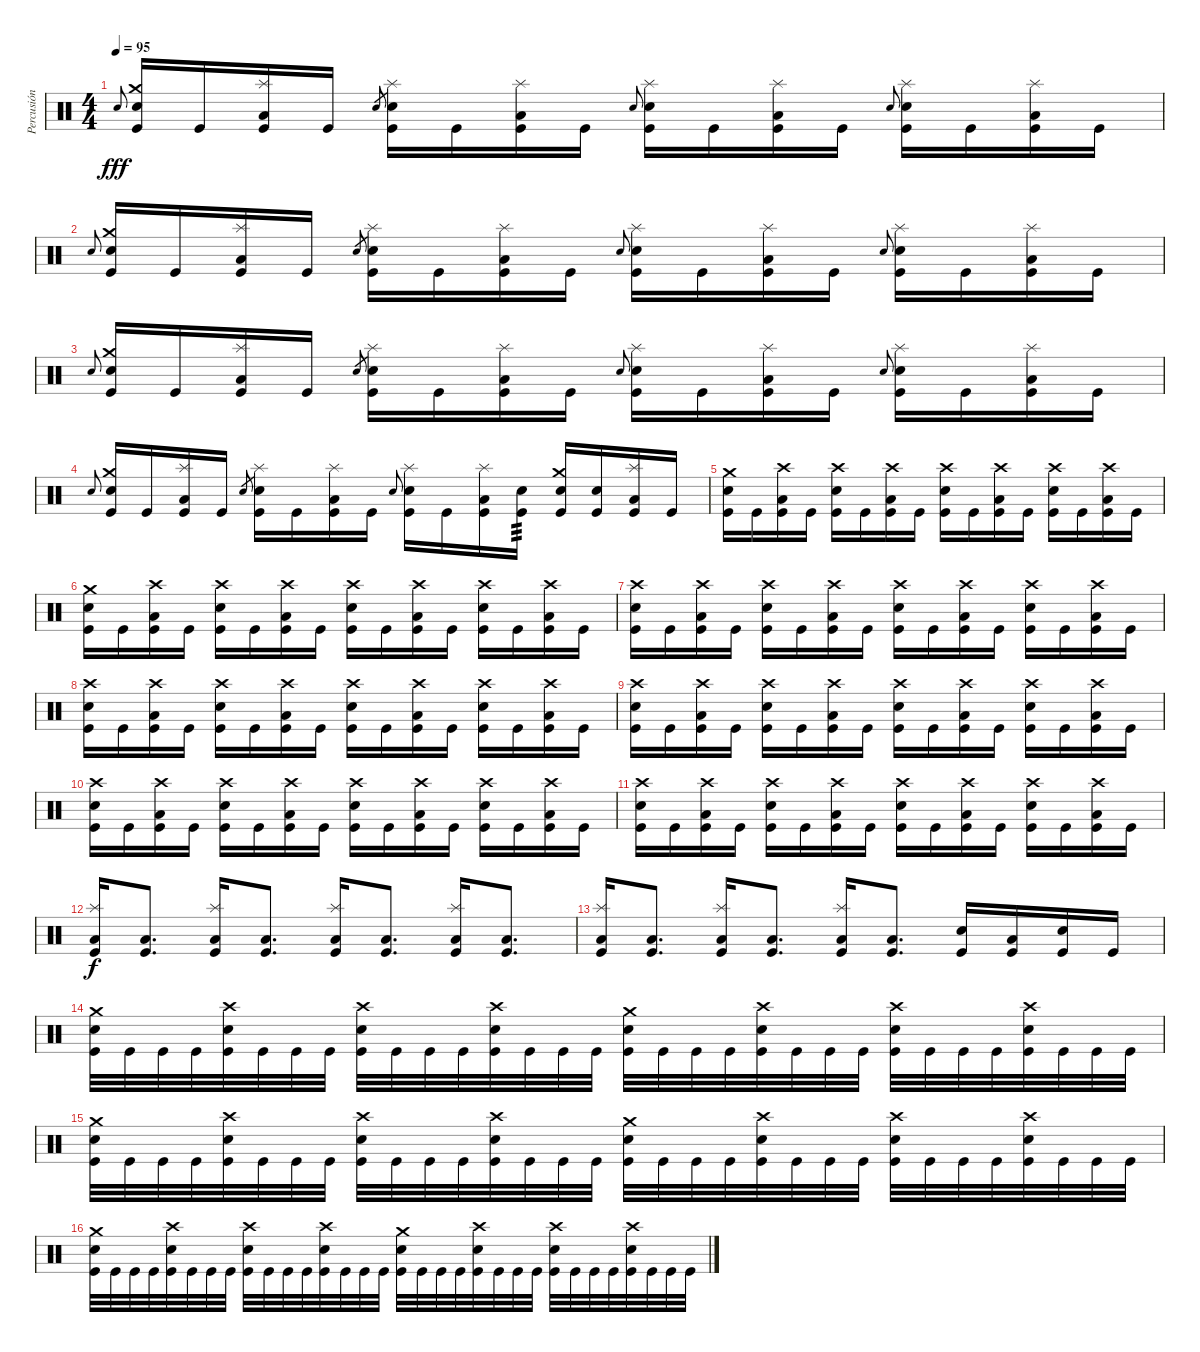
\track ("Percusión" "Percusión") {instrument percussion}
\staff {score}
\articulation defaults
\ts (4 4)
\tempo 95
\clef neutral
\ks c "Snare (hit) 2".8{gr onbeat dy fff}
("Crash medium (hit)" "Snare (hit) 2" "Kick (hit)").16 "Kick (hit)".16 ("Splash (hit)" "Low Floor Tom (hit)" "Kick (hit)").16 "Kick (hit)".16 "Snare (hit) 2".8{gr} ("Splash (hit)" "Snare (hit) 2" "Kick (hit)").16 "Kick (hit)".16 ("Splash (hit)" "Low Floor Tom (hit)" "Kick (hit)").16 "Kick (hit)".16 "Snare (hit) 2".8{gr onbeat} ("Splash (hit)" "Snare (hit) 2" "Kick (hit)").16 "Kick (hit)".16 ("Splash (hit)" "Low Floor Tom (hit)" "Kick (hit)").16 "Kick (hit)".16 "Snare (hit) 2".8{gr onbeat} ("Splash (hit)" "Snare (hit) 2" "Kick (hit)").16 "Kick (hit)".16 ("Splash (hit)" "Low Floor Tom (hit)" "Kick (hit)").16 "Kick (hit)".16 |
"Snare (hit) 2".8{gr onbeat} ("Crash medium (hit)" "Snare (hit) 2" "Kick (hit)").16 "Kick (hit)".16 ("Splash (hit)" "Low Floor Tom (hit)" "Kick (hit)").16 "Kick (hit)".16 "Snare (hit) 2".8{gr} ("Splash (hit)" "Snare (hit) 2" "Kick (hit)").16 "Kick (hit)".16 ("Splash (hit)" "Low Floor Tom (hit)" "Kick (hit)").16 "Kick (hit)".16 "Snare (hit) 2".8{gr onbeat} ("Splash (hit)" "Snare (hit) 2" "Kick (hit)").16 "Kick (hit)".16 ("Splash (hit)" "Low Floor Tom (hit)" "Kick (hit)").16 "Kick (hit)".16 "Snare (hit) 2".8{gr onbeat} ("Splash (hit)" "Snare (hit) 2" "Kick (hit)").16 "Kick (hit)".16 ("Splash (hit)" "Low Floor Tom (hit)" "Kick (hit)").16 "Kick (hit)".16 |
"Snare (hit) 2".8{gr onbeat} ("Crash medium (hit)" "Snare (hit) 2" "Kick (hit)").16 "Kick (hit)".16 ("Splash (hit)" "Low Floor Tom (hit)" "Kick (hit)").16 "Kick (hit)".16 "Snare (hit) 2".8{gr} ("Splash (hit)" "Snare (hit) 2" "Kick (hit)").16 "Kick (hit)".16 ("Splash (hit)" "Low Floor Tom (hit)" "Kick (hit)").16 "Kick (hit)".16 "Snare (hit) 2".8{gr onbeat} ("Splash (hit)" "Snare (hit) 2" "Kick (hit)").16 "Kick (hit)".16 ("Splash (hit)" "Low Floor Tom (hit)" "Kick (hit)").16 "Kick (hit)".16 "Snare (hit) 2".8{gr onbeat} ("Splash (hit)" "Snare (hit) 2" "Kick (hit)").16 "Kick (hit)".16 ("Splash (hit)" "Low Floor Tom (hit)" "Kick (hit)").16 "Kick (hit)".16 |
"Snare (hit) 2".8{gr onbeat} ("Crash medium (hit)" "Snare (hit) 2" "Kick (hit)").16 "Kick (hit)".16 ("Splash (hit)" "Low Floor Tom (hit)" "Kick (hit)").16 "Kick (hit)".16 "Snare (hit) 2".8{gr} ("Splash (hit)" "Snare (hit) 2" "Kick (hit)").16 "Kick (hit)".16 ("Splash (hit)" "Low Floor Tom (hit)" "Kick (hit)").16 "Kick (hit)".16 "Snare (hit) 2".8{gr onbeat} ("Splash (hit)" "Snare (hit) 2" "Kick (hit)").16 "Kick (hit)".16 ("Splash (hit)" "Low Floor Tom (hit)" "Kick (hit)").16 ("Snare (hit) 2" "Kick (hit)").16{tp 3} ("Crash medium (hit)" "Snare (hit) 2" "Kick (hit)").16 ("Snare (hit) 2" "Kick (hit)").16 ("Splash (hit)" "Low Floor Tom (hit)" "Kick (hit)").16 "Kick (hit)".16 |
("Crash medium (hit)" "Snare (hit) 2" "Kick (hit)").16 "Kick (hit)".16 ("Crash high (hit)" "Low Floor Tom (hit)" "Kick (hit)").16 "Kick (hit)".16 ("Crash high (hit)" "Snare (hit) 2" "Kick (hit)").16 "Kick (hit)".16 ("Crash high (hit)" "Low Floor Tom (hit)" "Kick (hit)").16 "Kick (hit)".16 ("Crash high (hit)" "Snare (hit) 2" "Kick (hit)").16 "Kick (hit)".16 ("Crash high (hit)" "Low Floor Tom (hit)" "Kick (hit)").16 "Kick (hit)".16 ("Crash high (hit)" "Snare (hit) 2" "Kick (hit)").16 "Kick (hit)".16 ("Crash high (hit)" "Low Floor Tom (hit)" "Kick (hit)").16 "Kick (hit)".16 |
("Crash medium (hit)" "Snare (hit) 2" "Kick (hit)").16 "Kick (hit)".16 ("Crash high (hit)" "Low Floor Tom (hit)" "Kick (hit)").16 "Kick (hit)".16 ("Crash high (hit)" "Snare (hit) 2" "Kick (hit)").16 "Kick (hit)".16 ("Crash high (hit)" "Low Floor Tom (hit)" "Kick (hit)").16 "Kick (hit)".16 ("Crash high (hit)" "Snare (hit) 2" "Kick (hit)").16 "Kick (hit)".16 ("Crash high (hit)" "Low Floor Tom (hit)" "Kick (hit)").16 "Kick (hit)".16 ("Crash high (hit)" "Snare (hit) 2" "Kick (hit)").16 "Kick (hit)".16 ("Crash high (hit)" "Low Floor Tom (hit)" "Kick (hit)").16 "Kick (hit)".16 |
("Crash high (hit)" "Snare (hit) 2" "Kick (hit)").16 "Kick (hit)".16 ("Crash high (hit)" "Low Floor Tom (hit)" "Kick (hit)").16 "Kick (hit)".16 ("Crash high (hit)" "Snare (hit) 2" "Kick (hit)").16 "Kick (hit)".16 ("Crash high (hit)" "Low Floor Tom (hit)" "Kick (hit)").16 "Kick (hit)".16 ("Crash high (hit)" "Snare (hit) 2" "Kick (hit)").16 "Kick (hit)".16 ("Crash high (hit)" "Low Floor Tom (hit)" "Kick (hit)").16 "Kick (hit)".16 ("Crash high (hit)" "Snare (hit) 2" "Kick (hit)").16 "Kick (hit)".16 ("Crash high (hit)" "Low Floor Tom (hit)" "Kick (hit)").16 "Kick (hit)".16 |
("Crash high (hit)" "Snare (hit) 2" "Kick (hit)").16 "Kick (hit)".16 ("Crash high (hit)" "Low Floor Tom (hit)" "Kick (hit)").16 "Kick (hit)".16 ("Crash high (hit)" "Snare (hit) 2" "Kick (hit)").16 "Kick (hit)".16 ("Crash high (hit)" "Low Floor Tom (hit)" "Kick (hit)").16 "Kick (hit)".16 ("Crash high (hit)" "Snare (hit) 2" "Kick (hit)").16 "Kick (hit)".16 ("Crash high (hit)" "Low Floor Tom (hit)" "Kick (hit)").16 "Kick (hit)".16 ("Crash high (hit)" "Snare (hit) 2" "Kick (hit)").16 "Kick (hit)".16 ("Crash high (hit)" "Low Floor Tom (hit)" "Kick (hit)").16 "Kick (hit)".16 |
("Crash high (hit)" "Snare (hit) 2" "Kick (hit)").16 "Kick (hit)".16 ("Crash high (hit)" "Low Floor Tom (hit)" "Kick (hit)").16 "Kick (hit)".16 ("Crash high (hit)" "Snare (hit) 2" "Kick (hit)").16 "Kick (hit)".16 ("Crash high (hit)" "Low Floor Tom (hit)" "Kick (hit)").16 "Kick (hit)".16 ("Crash high (hit)" "Snare (hit) 2" "Kick (hit)").16 "Kick (hit)".16 ("Crash high (hit)" "Low Floor Tom (hit)" "Kick (hit)").16 "Kick (hit)".16 ("Crash high (hit)" "Snare (hit) 2" "Kick (hit)").16 "Kick (hit)".16 ("Crash high (hit)" "Low Floor Tom (hit)" "Kick (hit)").16 "Kick (hit)".16 |
("Crash high (hit)" "Snare (hit) 2" "Kick (hit)").16 "Kick (hit)".16 ("Crash high (hit)" "Low Floor Tom (hit)" "Kick (hit)").16 "Kick (hit)".16 ("Crash high (hit)" "Snare (hit) 2" "Kick (hit)").16 "Kick (hit)".16 ("Crash high (hit)" "Low Floor Tom (hit)" "Kick (hit)").16 "Kick (hit)".16 ("Crash high (hit)" "Snare (hit) 2" "Kick (hit)").16 "Kick (hit)".16 ("Crash high (hit)" "Low Floor Tom (hit)" "Kick (hit)").16 "Kick (hit)".16 ("Crash high (hit)" "Snare (hit) 2" "Kick (hit)").16 "Kick (hit)".16 ("Crash high (hit)" "Low Floor Tom (hit)" "Kick (hit)").16 "Kick (hit)".16 |
("Crash high (hit)" "Snare (hit) 2" "Kick (hit)").16 "Kick (hit)".16 ("Crash high (hit)" "Low Floor Tom (hit)" "Kick (hit)").16 "Kick (hit)".16 ("Crash high (hit)" "Snare (hit) 2" "Kick (hit)").16 "Kick (hit)".16 ("Crash high (hit)" "Low Floor Tom (hit)" "Kick (hit)").16 "Kick (hit)".16 ("Crash high (hit)" "Snare (hit) 2" "Kick (hit)").16 "Kick (hit)".16 ("Crash high (hit)" "Low Floor Tom (hit)" "Kick (hit)").16 "Kick (hit)".16 ("Crash high (hit)" "Snare (hit) 2" "Kick (hit)").16 "Kick (hit)".16 ("Crash high (hit)" "Low Floor Tom (hit)" "Kick (hit)").16 "Kick (hit)".16 |
("Splash (hit)" "Low Floor Tom (hit)" "Kick (hit)").16{dy f} ("Low Floor Tom (hit)" "Kick (hit)").8{d} ("Splash (hit)" "Low Floor Tom (hit)" "Kick (hit)").16 ("Low Floor Tom (hit)" "Kick (hit)").8{d} ("Splash (hit)" "Low Floor Tom (hit)" "Kick (hit)").16 ("Low Floor Tom (hit)" "Kick (hit)").8{d} ("Splash (hit)" "Low Floor Tom (hit)" "Kick (hit)").16 ("Low Floor Tom (hit)" "Kick (hit)").8{d} |
("Splash (hit)" "Low Floor Tom (hit)" "Kick (hit)").16 ("Low Floor Tom (hit)" "Kick (hit)").8{d} ("Splash (hit)" "Low Floor Tom (hit)" "Kick (hit)").16 ("Low Floor Tom (hit)" "Kick (hit)").8{d} ("Splash (hit)" "Low Floor Tom (hit)" "Kick (hit)").16 ("Low Floor Tom (hit)" "Kick (hit)").8{d} ("Snare (hit) 2" "Kick (hit)").16 ("Low Floor Tom (hit)" "Kick (hit)").16 ("Snare (hit) 2" "Kick (hit)").16 "Kick (hit)".16 |
("Crash medium (hit)" "Snare (hit) 2" "Kick (hit)").32 "Kick (hit)".32 "Kick (hit)".32 "Kick (hit)".32 ("Crash high (hit)" "Snare (hit) 2" "Kick (hit)").32 "Kick (hit)".32 "Kick (hit)".32 "Kick (hit)".32 ("Crash high (hit)" "Snare (hit) 2" "Kick (hit)").32 "Kick (hit)".32 "Kick (hit)".32 "Kick (hit)".32 ("Crash high (hit)" "Snare (hit) 2" "Kick (hit)").32 "Kick (hit)".32 "Kick (hit)".32 "Kick (hit)".32 ("Crash medium (hit)" "Snare (hit) 2" "Kick (hit)").32 "Kick (hit)".32 "Kick (hit)".32 "Kick (hit)".32 ("Crash high (hit)" "Snare (hit) 2" "Kick (hit)").32 "Kick (hit)".32 "Kick (hit)".32 "Kick (hit)".32 ("Crash high (hit)" "Snare (hit) 2" "Kick (hit)").32 "Kick (hit)".32 "Kick (hit)".32 "Kick (hit)".32 ("Crash high (hit)" "Snare (hit) 2" "Kick (hit)").32 "Kick (hit)".32 "Kick (hit)".32 "Kick (hit)".32 |
("Crash medium (hit)" "Snare (hit) 2" "Kick (hit)").32 "Kick (hit)".32 "Kick (hit)".32 "Kick (hit)".32 ("Crash high (hit)" "Snare (hit) 2" "Kick (hit)").32 "Kick (hit)".32 "Kick (hit)".32 "Kick (hit)".32 ("Crash high (hit)" "Snare (hit) 2" "Kick (hit)").32 "Kick (hit)".32 "Kick (hit)".32 "Kick (hit)".32 ("Crash high (hit)" "Snare (hit) 2" "Kick (hit)").32 "Kick (hit)".32 "Kick (hit)".32 "Kick (hit)".32 ("Crash medium (hit)" "Snare (hit) 2" "Kick (hit)").32 "Kick (hit)".32 "Kick (hit)".32 "Kick (hit)".32 ("Crash high (hit)" "Snare (hit) 2" "Kick (hit)").32 "Kick (hit)".32 "Kick (hit)".32 "Kick (hit)".32 ("Crash high (hit)" "Snare (hit) 2" "Kick (hit)").32 "Kick (hit)".32 "Kick (hit)".32 "Kick (hit)".32 ("Crash high (hit)" "Snare (hit) 2" "Kick (hit)").32 "Kick (hit)".32 "Kick (hit)".32 "Kick (hit)".32 |
("Crash medium (hit)" "Snare (hit) 2" "Kick (hit)").32 "Kick (hit)".32 "Kick (hit)".32 "Kick (hit)".32 ("Crash high (hit)" "Snare (hit) 2" "Kick (hit)").32 "Kick (hit)".32 "Kick (hit)".32 "Kick (hit)".32 ("Crash high (hit)" "Snare (hit) 2" "Kick (hit)").32 "Kick (hit)".32 "Kick (hit)".32 "Kick (hit)".32 ("Crash high (hit)" "Snare (hit) 2" "Kick (hit)").32 "Kick (hit)".32 "Kick (hit)".32 "Kick (hit)".32 ("Crash medium (hit)" "Snare (hit) 2" "Kick (hit)").32 "Kick (hit)".32 "Kick (hit)".32 "Kick (hit)".32 ("Crash high (hit)" "Snare (hit) 2" "Kick (hit)").32 "Kick (hit)".32 "Kick (hit)".32 "Kick (hit)".32 ("Crash high (hit)" "Snare (hit) 2" "Kick (hit)").32 "Kick (hit)".32 "Kick (hit)".32 "Kick (hit)".32 ("Crash high (hit)" "Snare (hit) 2" "Kick (hit)").32 "Kick (hit)".32 "Kick (hit)".32 "Kick (hit)".32
